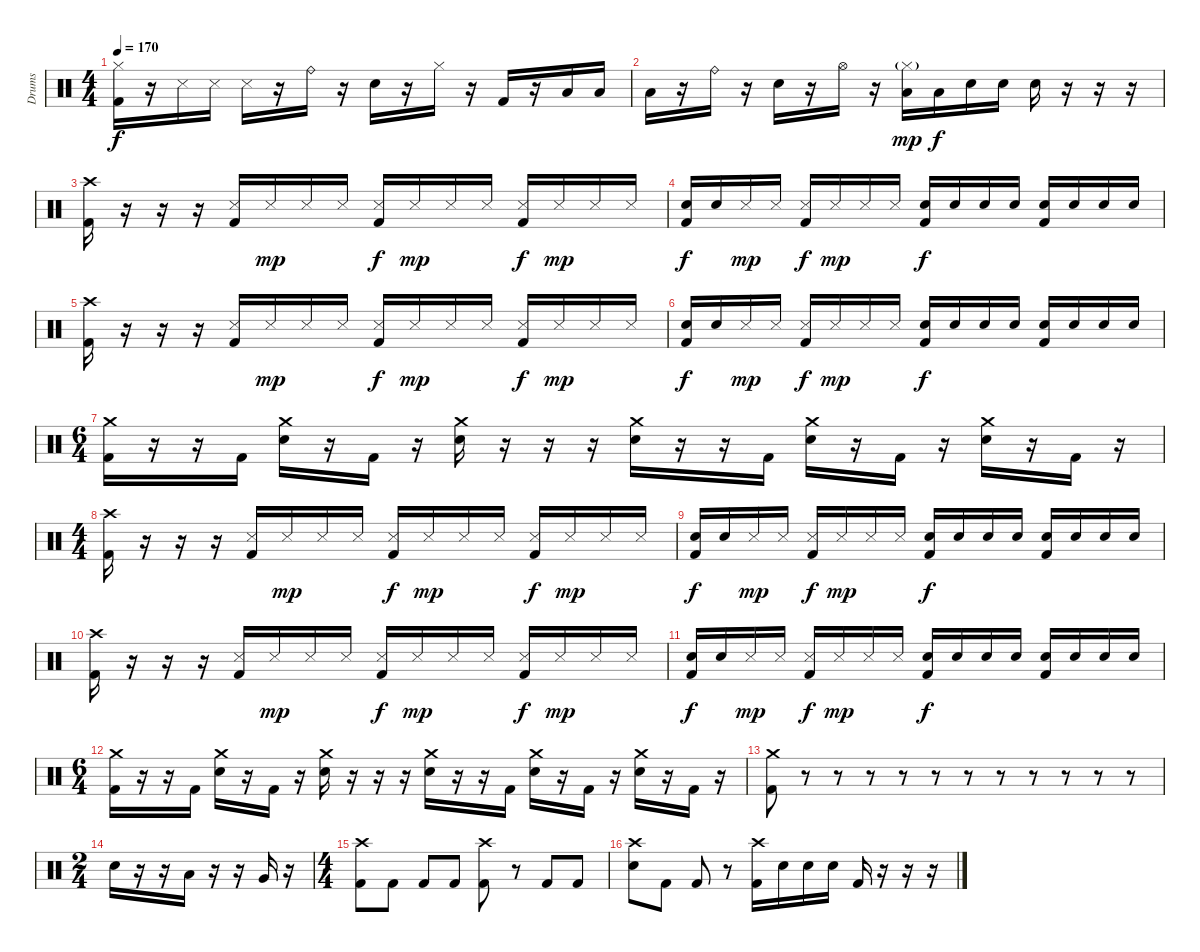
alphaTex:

\track ("Drums" "Drums") {instrument percussion}
\staff {score}
\articulation defaults
\ts (4 4)
\tempo 170
\clef neutral
\ks c
("Kick (hit) 2" "Hi-Hat (closed)").16{dy f} r.16 "Snare (side stick) 3".16 "Snare (side stick) 3".16 "Snare (side stick) 3".16 r.16 "Ride (bell)".16 r.16 "Electric Snare (hit)".16 r.16 "Hi-Hat (closed)".16 r.16 "Kick (hit) 2".16 r.16 "Low Tom (hit)".16 "Low Tom (hit)".16 |
"Low Tom (hit)".16 r.16 "Ride (bell)".16 r.16 "Electric Snare (hit)".16 r.16 "Hi-Hat (open)".16 r.16 ("Low Tom (hit)" "Hi-Hat (closed)"{g}).16{dy mp} "Low Tom (hit)".16{dy f} "Electric Snare (hit)".16 "Electric Snare (hit)".16 "Electric Snare (hit)".16 r.16 r.16 r.16 |
("Kick (hit) 2" "Crash high (hit)").16 r.16 r.16 r.16 ("Kick (hit) 2" "Snare (side stick) 3").16 "Snare (side stick) 3".16{dy mp} "Snare (side stick) 3".16 "Snare (side stick) 3".16 ("Kick (hit) 2" "Snare (side stick) 3").16{dy f} "Snare (side stick) 3".16{dy mp} "Snare (side stick) 3".16 "Snare (side stick) 3".16 ("Kick (hit) 2" "Snare (side stick) 3").16{dy f} "Snare (side stick) 3".16{dy mp} "Snare (side stick) 3".16 "Snare (side stick) 3".16 |
("Kick (hit) 2" "Electric Snare (hit)").16{dy f} "Electric Snare (hit)".16 "Snare (side stick) 3".16{dy mp} "Snare (side stick) 3".16 ("Kick (hit) 2" "Snare (side stick) 3").16{dy f} "Snare (side stick) 3".16{dy mp} "Snare (side stick) 3".16 "Snare (side stick) 3".16 ("Kick (hit) 2" "Electric Snare (hit)").16{dy f} "Electric Snare (hit)".16 "Electric Snare (hit)".16 "Electric Snare (hit)".16 ("Kick (hit) 2" "Electric Snare (hit)").16 "Electric Snare (hit)".16 "Electric Snare (hit)".16 "Electric Snare (hit)".16 |
("Kick (hit) 2" "Crash high (hit)").16 r.16 r.16 r.16 ("Kick (hit) 2" "Snare (side stick) 3").16 "Snare (side stick) 3".16{dy mp} "Snare (side stick) 3".16 "Snare (side stick) 3".16 ("Kick (hit) 2" "Snare (side stick) 3").16{dy f} "Snare (side stick) 3".16{dy mp} "Snare (side stick) 3".16 "Snare (side stick) 3".16 ("Kick (hit) 2" "Snare (side stick) 3").16{dy f} "Snare (side stick) 3".16{dy mp} "Snare (side stick) 3".16 "Snare (side stick) 3".16 |
("Kick (hit) 2" "Electric Snare (hit)").16{dy f} "Electric Snare (hit)".16 "Snare (side stick) 3".16{dy mp} "Snare (side stick) 3".16 ("Kick (hit) 2" "Snare (side stick) 3").16{dy f} "Snare (side stick) 3".16{dy mp} "Snare (side stick) 3".16 "Snare (side stick) 3".16 ("Kick (hit) 2" "Electric Snare (hit)").16{dy f} "Electric Snare (hit)".16 "Electric Snare (hit)".16 "Electric Snare (hit)".16 ("Kick (hit) 2" "Electric Snare (hit)").16 "Electric Snare (hit)".16 "Electric Snare (hit)".16 "Electric Snare (hit)".16 |
\ts (6 4)
("Crash medium (hit)" "Kick (hit) 2").16 r.16 r.16 "Kick (hit) 2".16 ("Crash medium (hit)" "Electric Snare (hit)").16 r.16 "Kick (hit) 2".16 r.16 ("Crash medium (hit)" "Electric Snare (hit)").16 r.16 r.16 r.16 ("Crash medium (hit)" "Electric Snare (hit)").16 r.16 r.16 "Kick (hit) 2".16 ("Crash medium (hit)" "Electric Snare (hit)").16 r.16 "Kick (hit) 2".16 r.16 ("Crash medium (hit)" "Electric Snare (hit)").16 r.16 "Kick (hit) 2".16 r.16 |
\ts (4 4)
("Kick (hit) 2" "Crash high (hit)").16 r.16 r.16 r.16 ("Kick (hit) 2" "Snare (side stick) 3").16 "Snare (side stick) 3".16{dy mp} "Snare (side stick) 3".16 "Snare (side stick) 3".16 ("Kick (hit) 2" "Snare (side stick) 3").16{dy f} "Snare (side stick) 3".16{dy mp} "Snare (side stick) 3".16 "Snare (side stick) 3".16 ("Kick (hit) 2" "Snare (side stick) 3").16{dy f} "Snare (side stick) 3".16{dy mp} "Snare (side stick) 3".16 "Snare (side stick) 3".16 |
("Kick (hit) 2" "Electric Snare (hit)").16{dy f} "Electric Snare (hit)".16 "Snare (side stick) 3".16{dy mp} "Snare (side stick) 3".16 ("Kick (hit) 2" "Snare (side stick) 3").16{dy f} "Snare (side stick) 3".16{dy mp} "Snare (side stick) 3".16 "Snare (side stick) 3".16 ("Kick (hit) 2" "Electric Snare (hit)").16{dy f} "Electric Snare (hit)".16 "Electric Snare (hit)".16 "Electric Snare (hit)".16 ("Kick (hit) 2" "Electric Snare (hit)").16 "Electric Snare (hit)".16 "Electric Snare (hit)".16 "Electric Snare (hit)".16 |
("Kick (hit) 2" "Crash high (hit)").16 r.16 r.16 r.16 ("Kick (hit) 2" "Snare (side stick) 3").16 "Snare (side stick) 3".16{dy mp} "Snare (side stick) 3".16 "Snare (side stick) 3".16 ("Kick (hit) 2" "Snare (side stick) 3").16{dy f} "Snare (side stick) 3".16{dy mp} "Snare (side stick) 3".16 "Snare (side stick) 3".16 ("Kick (hit) 2" "Snare (side stick) 3").16{dy f} "Snare (side stick) 3".16{dy mp} "Snare (side stick) 3".16 "Snare (side stick) 3".16 |
("Kick (hit) 2" "Electric Snare (hit)").16{dy f} "Electric Snare (hit)".16 "Snare (side stick) 3".16{dy mp} "Snare (side stick) 3".16 ("Kick (hit) 2" "Snare (side stick) 3").16{dy f} "Snare (side stick) 3".16{dy mp} "Snare (side stick) 3".16 "Snare (side stick) 3".16 ("Kick (hit) 2" "Electric Snare (hit)").16{dy f} "Electric Snare (hit)".16 "Electric Snare (hit)".16 "Electric Snare (hit)".16 ("Kick (hit) 2" "Electric Snare (hit)").16 "Electric Snare (hit)".16 "Electric Snare (hit)".16 "Electric Snare (hit)".16 |
\ts (6 4)
("Crash medium (hit)" "Kick (hit) 2").16 r.16 r.16 "Kick (hit) 2".16 ("Crash medium (hit)" "Electric Snare (hit)").16 r.16 "Kick (hit) 2".16 r.16 ("Crash medium (hit)" "Electric Snare (hit)").16 r.16 r.16 r.16 ("Crash medium (hit)" "Electric Snare (hit)").16 r.16 r.16 "Kick (hit) 2".16 ("Crash medium (hit)" "Electric Snare (hit)").16 r.16 "Kick (hit) 2".16 r.16 ("Crash medium (hit)" "Electric Snare (hit)").16 r.16 "Kick (hit) 2".16 r.16 |
("Kick (hit) 2" "Crash medium (hit)").8 r.8{volume 1} r.8 r.8 r.8 r.8 r.8 r.8 r.8 r.8 r.8 r.8 |
\ts (2 4)
"Electric Snare (hit)".16{volume 16} r.16 r.16 "Low Tom (hit)".16 r.16 r.16 "Very Low Tom (hit)".16 r.16 |
\ts (4 4)
("Crash high (hit)" "Kick (hit) 2").8 "Kick (hit) 2".8 "Kick (hit) 2".8 "Kick (hit) 2".8 ("Crash high (hit)" "Kick (hit) 2").8 r.8 "Kick (hit) 2".8 "Kick (hit) 2".8 |
("Crash high (hit)" "Electric Snare (hit)").8 "Kick (hit) 2".8 "Kick (hit) 2".8 r.8 ("Crash high (hit)" "Kick (hit) 2").16 "Electric Snare (hit)".16 "Electric Snare (hit)".16 "Electric Snare (hit)".16 "Kick (hit) 2".16 r.16 r.16 r.16
